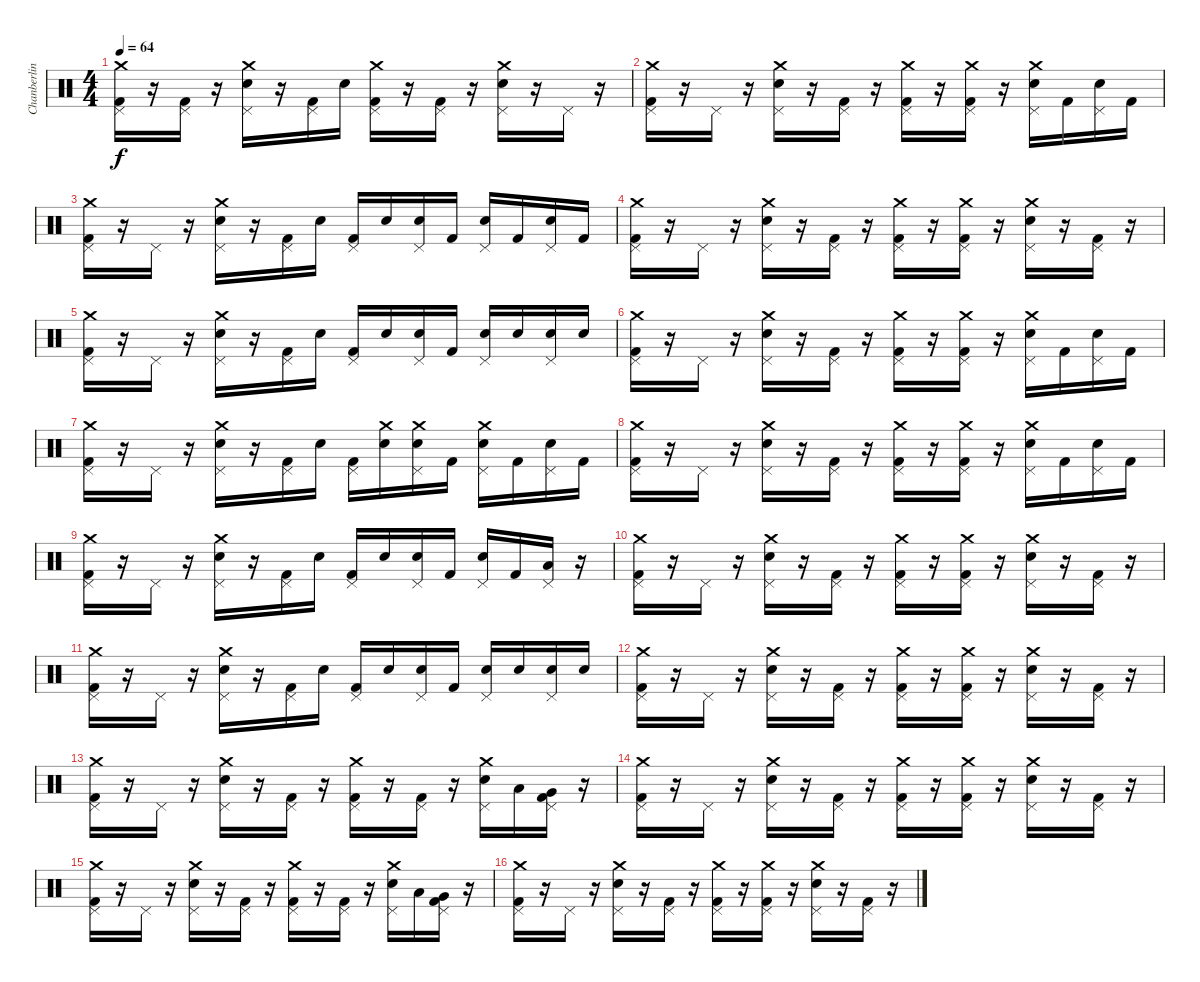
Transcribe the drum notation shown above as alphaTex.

\track ("Chanberlin" "Chanberlin") {instrument percussion}
\staff {score}
\articulation defaults
\ts (4 4)
\tempo 64
\clef neutral
\ks c
("Crash medium (hit)" "Pedal Hi-Hat (hit)" "Kick (hit) 2").16{dy f} r.16 ("Pedal Hi-Hat (hit)" "Kick (hit) 2").16 r.16 ("Crash medium (hit)" "Pedal Hi-Hat (hit)" "Snare (hit) 2").16 r.16 ("Pedal Hi-Hat (hit)" "Kick (hit) 2").16 "Snare (hit) 2".16 ("Crash medium (hit)" "Pedal Hi-Hat (hit)" "Kick (hit) 2").16 r.16 ("Pedal Hi-Hat (hit)" "Kick (hit) 2").16 r.16 ("Crash medium (hit)" "Pedal Hi-Hat (hit)" "Snare (hit) 2").16 r.16 "Pedal Hi-Hat (hit)".16 r.16 |
("Crash medium (hit)" "Pedal Hi-Hat (hit)" "Kick (hit) 2").16 r.16 "Pedal Hi-Hat (hit)".16 r.16 ("Crash medium (hit)" "Pedal Hi-Hat (hit)" "Snare (hit) 2").16 r.16 ("Pedal Hi-Hat (hit)" "Kick (hit) 2").16 r.16 ("Crash medium (hit)" "Pedal Hi-Hat (hit)" "Kick (hit) 2").16 r.16 ("Crash medium (hit)" "Pedal Hi-Hat (hit)" "Kick (hit) 2").16 r.16 ("Crash medium (hit)" "Pedal Hi-Hat (hit)" "Snare (hit) 2").16 "Kick (hit) 2".16 ("Pedal Hi-Hat (hit)" "Snare (hit) 2").16 "Kick (hit) 2".16 |
("Crash medium (hit)" "Pedal Hi-Hat (hit)" "Kick (hit) 2").16 r.16 "Pedal Hi-Hat (hit)".16 r.16 ("Crash medium (hit)" "Pedal Hi-Hat (hit)" "Snare (hit) 2").16 r.16 ("Pedal Hi-Hat (hit)" "Kick (hit) 2").16 "Snare (hit) 2".16 ("Pedal Hi-Hat (hit)" "Kick (hit) 2").16 "Snare (hit) 2".16 ("Pedal Hi-Hat (hit)" "Snare (hit) 2").16 "Kick (hit) 2".16 ("Pedal Hi-Hat (hit)" "Snare (hit) 2").16 "Kick (hit) 2".16 ("Pedal Hi-Hat (hit)" "Snare (hit) 2").16 "Kick (hit) 2".16 |
("Crash medium (hit)" "Pedal Hi-Hat (hit)" "Kick (hit) 2").16 r.16 "Pedal Hi-Hat (hit)".16 r.16 ("Crash medium (hit)" "Pedal Hi-Hat (hit)" "Snare (hit) 2").16 r.16 ("Pedal Hi-Hat (hit)" "Kick (hit) 2").16 r.16 ("Crash medium (hit)" "Pedal Hi-Hat (hit)" "Kick (hit) 2").16 r.16 ("Crash medium (hit)" "Pedal Hi-Hat (hit)" "Kick (hit) 2").16 r.16 ("Crash medium (hit)" "Pedal Hi-Hat (hit)" "Snare (hit) 2").16 r.16 ("Pedal Hi-Hat (hit)" "Kick (hit) 2").16 r.16 |
("Crash medium (hit)" "Pedal Hi-Hat (hit)" "Kick (hit) 2").16 r.16 "Pedal Hi-Hat (hit)".16 r.16 ("Crash medium (hit)" "Pedal Hi-Hat (hit)" "Snare (hit) 2").16 r.16 ("Pedal Hi-Hat (hit)" "Kick (hit) 2").16 "Snare (hit) 2".16 ("Pedal Hi-Hat (hit)" "Kick (hit) 2").16 "Snare (hit) 2".16 ("Pedal Hi-Hat (hit)" "Snare (hit) 2").16 "Kick (hit) 2".16 ("Pedal Hi-Hat (hit)" "Snare (hit) 2").16 "Snare (hit) 2".16 ("Pedal Hi-Hat (hit)" "Snare (hit) 2").16 "Snare (hit) 2".16 |
("Crash medium (hit)" "Pedal Hi-Hat (hit)" "Kick (hit) 2").16 r.16 "Pedal Hi-Hat (hit)".16 r.16 ("Crash medium (hit)" "Pedal Hi-Hat (hit)" "Snare (hit) 2").16 r.16 ("Pedal Hi-Hat (hit)" "Kick (hit) 2").16 r.16 ("Crash medium (hit)" "Pedal Hi-Hat (hit)" "Kick (hit) 2").16 r.16 ("Crash medium (hit)" "Pedal Hi-Hat (hit)" "Kick (hit) 2").16 r.16 ("Crash medium (hit)" "Pedal Hi-Hat (hit)" "Snare (hit) 2").16 "Kick (hit) 2".16 ("Pedal Hi-Hat (hit)" "Snare (hit) 2").16 "Kick (hit) 2".16 |
("Crash medium (hit)" "Pedal Hi-Hat (hit)" "Kick (hit) 2").16 r.16 "Pedal Hi-Hat (hit)".16 r.16 ("Crash medium (hit)" "Pedal Hi-Hat (hit)" "Snare (hit) 2").16 r.16 ("Pedal Hi-Hat (hit)" "Kick (hit) 2").16 "Snare (hit) 2".16 ("Pedal Hi-Hat (hit)" "Kick (hit) 2").16 ("Crash medium (hit)" "Snare (hit) 2").16 ("Crash medium (hit)" "Pedal Hi-Hat (hit)" "Snare (hit) 2").16 "Kick (hit) 2".16 ("Crash medium (hit)" "Pedal Hi-Hat (hit)" "Snare (hit) 2").16 "Kick (hit) 2".16 ("Pedal Hi-Hat (hit)" "Snare (hit) 2").16 "Kick (hit) 2".16 |
("Crash medium (hit)" "Pedal Hi-Hat (hit)" "Kick (hit) 2").16 r.16 "Pedal Hi-Hat (hit)".16 r.16 ("Crash medium (hit)" "Pedal Hi-Hat (hit)" "Snare (hit) 2").16 r.16 ("Pedal Hi-Hat (hit)" "Kick (hit) 2").16 r.16 ("Crash medium (hit)" "Pedal Hi-Hat (hit)" "Kick (hit) 2").16 r.16 ("Crash medium (hit)" "Pedal Hi-Hat (hit)" "Kick (hit) 2").16 r.16 ("Crash medium (hit)" "Pedal Hi-Hat (hit)" "Snare (hit) 2").16 "Kick (hit) 2".16 ("Pedal Hi-Hat (hit)" "Snare (hit) 2").16 "Kick (hit) 2".16 |
("Crash medium (hit)" "Pedal Hi-Hat (hit)" "Kick (hit) 2").16 r.16 "Pedal Hi-Hat (hit)".16 r.16 ("Crash medium (hit)" "Pedal Hi-Hat (hit)" "Snare (hit) 2").16 r.16 ("Pedal Hi-Hat (hit)" "Kick (hit) 2").16 "Snare (hit) 2".16 ("Pedal Hi-Hat (hit)" "Kick (hit) 2").16 "Snare (hit) 2".16 ("Pedal Hi-Hat (hit)" "Snare (hit) 2").16 "Kick (hit) 2".16 ("Pedal Hi-Hat (hit)" "Snare (hit) 2").16 "Kick (hit) 2".16 ("Pedal Hi-Hat (hit)" "Low Tom (hit)").16 r.16 |
("Crash medium (hit)" "Pedal Hi-Hat (hit)" "Kick (hit) 2").16 r.16 "Pedal Hi-Hat (hit)".16 r.16 ("Crash medium (hit)" "Pedal Hi-Hat (hit)" "Snare (hit) 2").16 r.16 ("Pedal Hi-Hat (hit)" "Kick (hit) 2").16 r.16 ("Crash medium (hit)" "Pedal Hi-Hat (hit)" "Kick (hit) 2").16 r.16 ("Crash medium (hit)" "Pedal Hi-Hat (hit)" "Kick (hit) 2").16 r.16 ("Crash medium (hit)" "Pedal Hi-Hat (hit)" "Snare (hit) 2").16 r.16 ("Pedal Hi-Hat (hit)" "Kick (hit) 2").16 r.16 |
("Crash medium (hit)" "Pedal Hi-Hat (hit)" "Kick (hit) 2").16 r.16 "Pedal Hi-Hat (hit)".16 r.16 ("Crash medium (hit)" "Pedal Hi-Hat (hit)" "Snare (hit) 2").16 r.16 ("Pedal Hi-Hat (hit)" "Kick (hit) 2").16 "Snare (hit) 2".16 ("Pedal Hi-Hat (hit)" "Kick (hit) 2").16 "Snare (hit) 2".16 ("Pedal Hi-Hat (hit)" "Snare (hit) 2").16 "Kick (hit) 2".16 ("Pedal Hi-Hat (hit)" "Snare (hit) 2").16 "Snare (hit) 2".16 ("Pedal Hi-Hat (hit)" "Snare (hit) 2").16 "Snare (hit) 2".16 |
("Crash medium (hit)" "Pedal Hi-Hat (hit)" "Kick (hit) 2").16 r.16 "Pedal Hi-Hat (hit)".16 r.16 ("Crash medium (hit)" "Pedal Hi-Hat (hit)" "Snare (hit) 2").16 r.16 ("Pedal Hi-Hat (hit)" "Kick (hit) 2").16 r.16 ("Crash medium (hit)" "Pedal Hi-Hat (hit)" "Kick (hit) 2").16 r.16 ("Crash medium (hit)" "Pedal Hi-Hat (hit)" "Kick (hit) 2").16 r.16 ("Crash medium (hit)" "Pedal Hi-Hat (hit)" "Snare (hit) 2").16 r.16 ("Pedal Hi-Hat (hit)" "Kick (hit) 2").16 r.16 |
("Crash medium (hit)" "Pedal Hi-Hat (hit)" "Kick (hit) 2").16 r.16 "Pedal Hi-Hat (hit)".16 r.16 ("Crash medium (hit)" "Pedal Hi-Hat (hit)" "Snare (hit) 2").16 r.16 ("Pedal Hi-Hat (hit)" "Kick (hit) 2").16 r.16 ("Crash medium (hit)" "Pedal Hi-Hat (hit)" "Kick (hit) 2").16 r.16 ("Pedal Hi-Hat (hit)" "Kick (hit) 2").16 r.16 ("Crash medium (hit)" "Pedal Hi-Hat (hit)" "Snare (hit) 2").16 "Low Tom (hit)".16 ("Pedal Hi-Hat (hit)" "Very Low Tom (hit)" "Kick (hit) 2").16 r.16 |
("Crash medium (hit)" "Pedal Hi-Hat (hit)" "Kick (hit) 2").16 r.16 "Pedal Hi-Hat (hit)".16 r.16 ("Crash medium (hit)" "Pedal Hi-Hat (hit)" "Snare (hit) 2").16 r.16 ("Pedal Hi-Hat (hit)" "Kick (hit) 2").16 r.16 ("Crash medium (hit)" "Pedal Hi-Hat (hit)" "Kick (hit) 2").16 r.16 ("Crash medium (hit)" "Pedal Hi-Hat (hit)" "Kick (hit) 2").16 r.16 ("Crash medium (hit)" "Pedal Hi-Hat (hit)" "Snare (hit) 2").16 r.16 ("Pedal Hi-Hat (hit)" "Kick (hit) 2").16 r.16 |
("Crash medium (hit)" "Pedal Hi-Hat (hit)" "Kick (hit) 2").16 r.16 "Pedal Hi-Hat (hit)".16 r.16 ("Crash medium (hit)" "Pedal Hi-Hat (hit)" "Snare (hit) 2").16 r.16 ("Pedal Hi-Hat (hit)" "Kick (hit) 2").16 r.16 ("Crash medium (hit)" "Pedal Hi-Hat (hit)" "Kick (hit) 2").16 r.16 ("Pedal Hi-Hat (hit)" "Kick (hit) 2").16 r.16 ("Crash medium (hit)" "Pedal Hi-Hat (hit)" "Snare (hit) 2").16 "Low Tom (hit)".16 ("Pedal Hi-Hat (hit)" "Very Low Tom (hit)" "Kick (hit) 2").16 r.16 |
("Crash medium (hit)" "Pedal Hi-Hat (hit)" "Kick (hit) 2").16 r.16 "Pedal Hi-Hat (hit)".16 r.16 ("Crash medium (hit)" "Pedal Hi-Hat (hit)" "Snare (hit) 2").16 r.16 ("Pedal Hi-Hat (hit)" "Kick (hit) 2").16 r.16 ("Crash medium (hit)" "Pedal Hi-Hat (hit)" "Kick (hit) 2").16 r.16 ("Crash medium (hit)" "Pedal Hi-Hat (hit)" "Kick (hit) 2").16 r.16 ("Crash medium (hit)" "Pedal Hi-Hat (hit)" "Snare (hit) 2").16 r.16 ("Pedal Hi-Hat (hit)" "Kick (hit) 2").16 r.16
